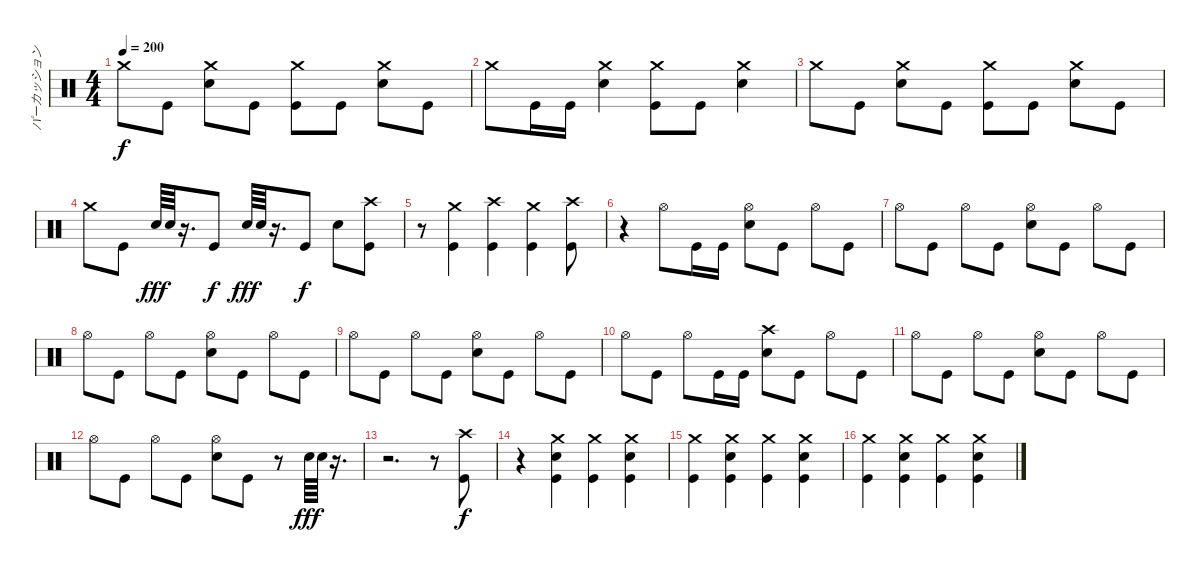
\track ("パーカッション" "パーカッション") {instrument percussion}
\staff {score}
\articulation defaults
\ts (4 4)
\tempo 200
\clef neutral
\ks c "Crash medium (hit)".8{dy f} "Kick (hit)".8
("Snare (hit) 2" "Crash medium (hit)").8 "Kick (hit)".8 ("Kick (hit)" "Crash medium (hit)").8 "Kick (hit)".8 ("Crash medium (hit)" "Snare (hit) 2").8 "Kick (hit)".8 |
"Crash medium (hit)".8 "Kick (hit)".16 "Kick (hit)".16 ("Snare (hit) 2" "Crash medium (hit)").4 ("Crash medium (hit)" "Kick (hit)").8 "Kick (hit)".8 ("Snare (hit) 2" "Crash medium (hit)").4 |
"Crash medium (hit)".8 "Kick (hit)".8 ("Snare (hit) 2" "Crash medium (hit)").8 "Kick (hit)".8 ("Kick (hit)" "Crash medium (hit)").8 "Kick (hit)".8 ("Crash medium (hit)" "Snare (hit) 2").8 "Kick (hit)".8 |
"Crash medium (hit)".8 "Kick (hit)".8 "Snare (hit) 2".64{dy fff} "Snare (hit) 2".64 r.16{d} "Kick (hit)".8{dy f} "Snare (hit) 2".64{dy fff} "Snare (hit) 2".64 r.16{d} "Kick (hit)".8{dy f} "Snare (hit) 2".8 ("Crash high (hit)" "Kick (hit)").8 |
r.8 ("Kick (hit)" "Crash medium (hit)").4 ("Crash high (hit)" "Kick (hit)").4 ("Kick (hit)" "Crash medium (hit)").4 ("Crash high (hit)" "Kick (hit)").8 |
r.4 "Hi-Hat (open)".8 "Kick (hit)".16 "Kick (hit)".16 ("Snare (hit) 2" "Hi-Hat (open)").8 "Kick (hit)".8 "Hi-Hat (open)".8 "Kick (hit)".8 |
"Hi-Hat (open)".8 "Kick (hit)".8 "Hi-Hat (open)".8 "Kick (hit)".8 ("Hi-Hat (open)" "Snare (hit) 2").8 "Kick (hit)".8 "Hi-Hat (open)".8 "Kick (hit)".8 |
"Hi-Hat (open)".8 "Kick (hit)".8 "Hi-Hat (open)".8 "Kick (hit)".8 ("Hi-Hat (open)" "Snare (hit) 2").8 "Kick (hit)".8 "Hi-Hat (open)".8 "Kick (hit)".8 |
"Hi-Hat (open)".8 "Kick (hit)".8 "Hi-Hat (open)".8 "Kick (hit)".8 ("Hi-Hat (open)" "Snare (hit) 2").8 "Kick (hit)".8 "Hi-Hat (open)".8 "Kick (hit)".8 |
"Hi-Hat (open)".8 "Kick (hit)".8 "Hi-Hat (open)".8 "Kick (hit)".16 "Kick (hit)".16 ("Crash high (hit)" "Snare (hit) 2").8 "Kick (hit)".8 "Hi-Hat (open)".8 "Kick (hit)".8 |
"Hi-Hat (open)".8 "Kick (hit)".8 "Hi-Hat (open)".8 "Kick (hit)".8 ("Hi-Hat (open)" "Snare (hit) 2").8 "Kick (hit)".8 "Hi-Hat (open)".8 "Kick (hit)".8 |
"Hi-Hat (open)".8 "Kick (hit)".8 "Hi-Hat (open)".8 "Kick (hit)".8 ("Hi-Hat (open)" "Snare (hit) 2").8 "Kick (hit)".8 r.8 "Snare (hit) 2".64{dy fff} "Snare (hit) 2".64 r.16{d} |
r.2{d} r.8 ("Kick (hit)" "Crash high (hit)").8{dy f} |
r.4 ("Crash medium (hit)" "Kick (hit)" "Snare (hit) 2").4 ("Kick (hit)" "Crash medium (hit)").4 ("Crash medium (hit)" "Kick (hit)" "Snare (hit) 2").4 |
("Kick (hit)" "Crash medium (hit)").4 ("Crash medium (hit)" "Kick (hit)" "Snare (hit) 2").4 ("Kick (hit)" "Crash medium (hit)").4 ("Crash medium (hit)" "Kick (hit)" "Snare (hit) 2").4 |
("Kick (hit)" "Crash medium (hit)").4 ("Crash medium (hit)" "Kick (hit)" "Snare (hit) 2").4 ("Kick (hit)" "Crash medium (hit)").4 ("Crash medium (hit)" "Kick (hit)" "Snare (hit) 2").4
